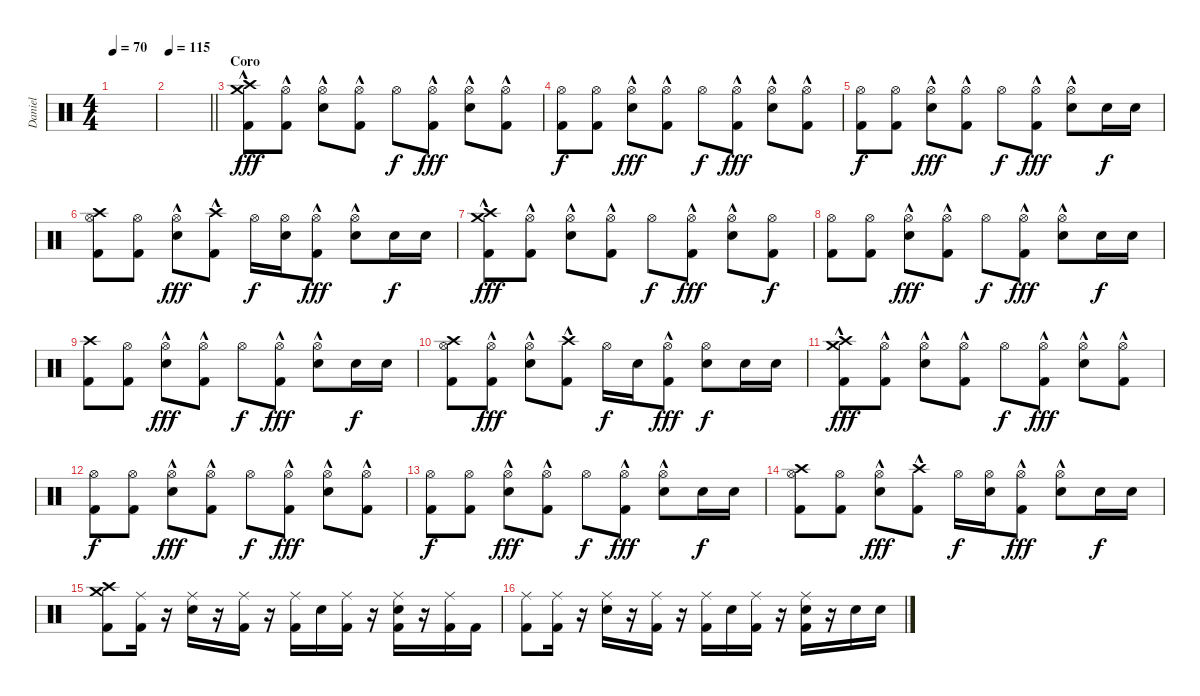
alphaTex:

\track ("Daniel" "Daniel") {instrument percussion}
\staff {score}
\articulation defaults
\ts (4 4)
\tempo 70
\clef neutral
\ks c
|
\tempo 115
\barLineRight lightlight
|
\section ("" "Coro")
("Crash medium (hit)" "Crash high (hit)" "Kick (hit) 2"{hac}).8{dy fff} ("Hi-Hat (open)" "Kick (hit) 2"{hac}).8 ("Hi-Hat (open)"{hac} "Snare (hit) 2").8 ("Hi-Hat (open)" "Kick (hit) 2"{hac}).8 "Hi-Hat (open)".8{dy f} ("Hi-Hat (open)" "Kick (hit) 2"{hac}).8{dy fff} ("Hi-Hat (open)"{hac} "Snare (hit) 2").8 ("Hi-Hat (open)" "Kick (hit) 2"{hac}).8 |
("Hi-Hat (open)" "Kick (hit) 2").8{dy f} ("Hi-Hat (open)" "Kick (hit) 2").8 ("Hi-Hat (open)"{hac} "Snare (hit) 2").8{dy fff} ("Hi-Hat (open)" "Kick (hit) 2"{hac}).8 "Hi-Hat (open)".8{dy f} ("Hi-Hat (open)" "Kick (hit) 2"{hac}).8{dy fff} ("Hi-Hat (open)"{hac} "Snare (hit) 2").8 ("Hi-Hat (open)" "Kick (hit) 2"{hac}).8 |
("Hi-Hat (open)" "Kick (hit) 2").8{dy f} ("Hi-Hat (open)" "Kick (hit) 2").8 ("Hi-Hat (open)"{hac} "Snare (hit) 2").8{dy fff} ("Hi-Hat (open)" "Kick (hit) 2"{hac}).8 "Hi-Hat (open)".8{dy f} ("Hi-Hat (open)" "Kick (hit) 2"{hac}).8{dy fff} ("Hi-Hat (open)"{hac} "Snare (hit) 2").8 "Snare (hit) 2".16{dy f} "Snare (hit) 2".16 |
("Crash high (hit)" "Hi-Hat (open)" "Kick (hit) 2").8 ("Hi-Hat (open)" "Kick (hit) 2").8 ("Hi-Hat (open)"{hac} "Snare (hit) 2").8{dy fff} ("Crash high (hit)" "Kick (hit) 2"{hac}).8 "Hi-Hat (open)".16{dy f} ("Hi-Hat (open)" "Snare (hit) 2").16 ("Hi-Hat (open)" "Kick (hit) 2"{hac}).8{dy fff} ("Hi-Hat (open)"{hac} "Snare (hit) 2").8 "Snare (hit) 2".16{dy f} "Snare (hit) 2".16 |
("Crash medium (hit)" "Crash high (hit)" "Kick (hit) 2"{hac}).8{dy fff} ("Hi-Hat (open)" "Kick (hit) 2"{hac}).8 ("Hi-Hat (open)"{hac} "Snare (hit) 2").8 ("Hi-Hat (open)" "Kick (hit) 2"{hac}).8 "Hi-Hat (open)".8{dy f} ("Hi-Hat (open)" "Kick (hit) 2"{hac}).8{dy fff} ("Hi-Hat (open)"{hac} "Snare (hit) 2").8 ("Hi-Hat (open)" "Kick (hit) 2").8{dy f} |
("Hi-Hat (open)" "Kick (hit) 2").8 ("Hi-Hat (open)" "Kick (hit) 2").8 ("Hi-Hat (open)"{hac} "Snare (hit) 2").8{dy fff} ("Hi-Hat (open)" "Kick (hit) 2"{hac}).8 "Hi-Hat (open)".8{dy f} ("Hi-Hat (open)" "Kick (hit) 2"{hac}).8{dy fff} ("Hi-Hat (open)"{hac} "Snare (hit) 2").8 "Snare (hit) 2".16{dy f} "Snare (hit) 2".16 |
("Crash high (hit)" "Kick (hit) 2").8 ("Hi-Hat (open)" "Kick (hit) 2").8 ("Hi-Hat (open)"{hac} "Snare (hit) 2").8{dy fff} ("Hi-Hat (open)" "Kick (hit) 2"{hac}).8 "Hi-Hat (open)".8{dy f} ("Hi-Hat (open)" "Kick (hit) 2"{hac}).8{dy fff} ("Hi-Hat (open)"{hac} "Snare (hit) 2").8 "Snare (hit) 2".16{dy f} "Snare (hit) 2".16 |
("Crash high (hit)" "Hi-Hat (open)" "Kick (hit) 2").8 ("Hi-Hat (open)" "Kick (hit) 2"{hac}).8{dy fff} ("Hi-Hat (open)"{hac} "Snare (hit) 2").8 ("Crash high (hit)" "Kick (hit) 2"{hac}).8 "Hi-Hat (open)".16{dy f} "Snare (hit) 2".16 ("Hi-Hat (open)" "Kick (hit) 2"{hac}).8{dy fff} ("Hi-Hat (open)" "Snare (hit) 2").8{dy f} "Snare (hit) 2".16 "Snare (hit) 2".16 |
("Crash medium (hit)" "Crash high (hit)" "Kick (hit) 2"{hac}).8{dy fff} ("Hi-Hat (open)" "Kick (hit) 2"{hac}).8 ("Hi-Hat (open)"{hac} "Snare (hit) 2").8 ("Hi-Hat (open)" "Kick (hit) 2"{hac}).8 "Hi-Hat (open)".8{dy f} ("Hi-Hat (open)" "Kick (hit) 2"{hac}).8{dy fff} ("Hi-Hat (open)"{hac} "Snare (hit) 2").8 ("Hi-Hat (open)" "Kick (hit) 2"{hac}).8 |
("Hi-Hat (open)" "Kick (hit) 2").8{dy f} ("Hi-Hat (open)" "Kick (hit) 2").8 ("Hi-Hat (open)"{hac} "Snare (hit) 2").8{dy fff} ("Hi-Hat (open)" "Kick (hit) 2"{hac}).8 "Hi-Hat (open)".8{dy f} ("Hi-Hat (open)" "Kick (hit) 2"{hac}).8{dy fff} ("Hi-Hat (open)"{hac} "Snare (hit) 2").8 ("Hi-Hat (open)" "Kick (hit) 2"{hac}).8 |
("Hi-Hat (open)" "Kick (hit) 2").8{dy f} ("Hi-Hat (open)" "Kick (hit) 2").8 ("Hi-Hat (open)"{hac} "Snare (hit) 2").8{dy fff} ("Hi-Hat (open)" "Kick (hit) 2"{hac}).8 "Hi-Hat (open)".8{dy f} ("Hi-Hat (open)" "Kick (hit) 2"{hac}).8{dy fff} ("Hi-Hat (open)"{hac} "Snare (hit) 2").8 "Snare (hit) 2".16{dy f} "Snare (hit) 2".16 |
("Crash high (hit)" "Hi-Hat (open)" "Kick (hit) 2").8 ("Hi-Hat (open)" "Kick (hit) 2").8 ("Hi-Hat (open)"{hac} "Snare (hit) 2").8{dy fff} ("Crash high (hit)" "Kick (hit) 2"{hac}).8 "Hi-Hat (open)".16{dy f} ("Hi-Hat (open)" "Snare (hit) 2").16 ("Hi-Hat (open)" "Kick (hit) 2"{hac}).8{dy fff} ("Hi-Hat (open)"{hac} "Snare (hit) 2").8 "Snare (hit) 2".16{dy f} "Snare (hit) 2".16 |
("Crash high (hit)" "Crash medium (hit)" "Kick (hit) 2").8 ("Ride (middle)" "Kick (hit) 2").16 r.16 ("Ride (middle)" "Snare (hit) 2").16 r.16 ("Ride (middle)" "Kick (hit) 2").16 r.16 ("Ride (middle)" "Kick (hit) 2").16 "Snare (hit) 2".16 ("Ride (middle)" "Kick (hit) 2").16 r.16 ("Ride (middle)" "Snare (hit) 2" "Kick (hit) 2").16 r.16 ("Ride (middle)" "Kick (hit) 2").16 "Kick (hit) 2".16 |
("Ride (middle)" "Kick (hit) 2").8 ("Ride (middle)" "Kick (hit) 2").16 r.16 ("Ride (middle)" "Snare (hit) 2").16 r.16 ("Ride (middle)" "Kick (hit) 2").16 r.16 ("Ride (middle)" "Kick (hit) 2").16 "Snare (hit) 2".16 ("Ride (middle)" "Kick (hit) 2").16 r.16 ("Ride (middle)" "Snare (hit) 2" "Kick (hit) 2").16 r.16 "Snare (hit) 2".16 "Snare (hit) 2".16
